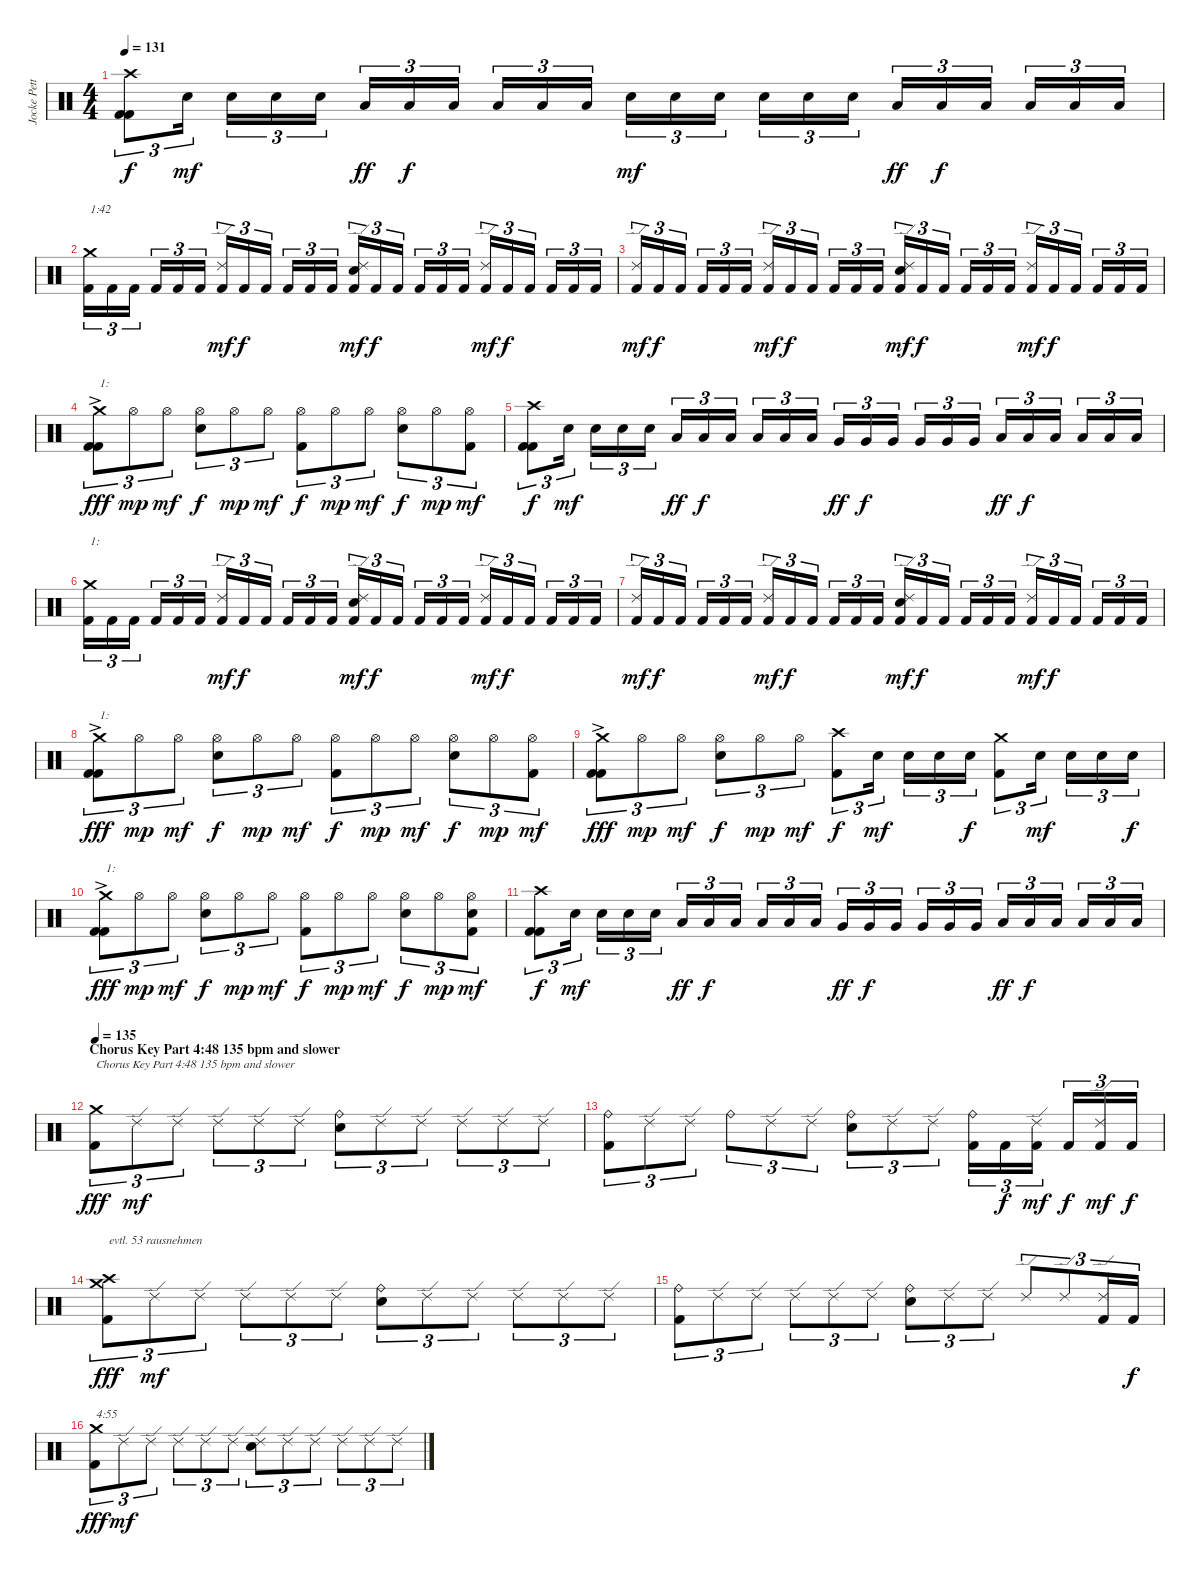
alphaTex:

\track ("Jocke Pettersson" "Jocke Pett") {instrument percussion}
\staff {score}
\articulation defaults
\ts (4 4)
\tempo 131
\clef neutral
\ks c
("Kick (hit) 2" "Kick (hit) 2" "Crash high (hit)").8{tu (3 2) dy f} "Electric Snare (hit)".16{tu (3 2) dy mf} "Electric Snare (hit)".16{tu (3 2)} "Electric Snare (hit)".16{tu (3 2)} "Electric Snare (hit)".16{tu (3 2)} "Low Tom (hit)".16{tu (3 2) dy ff} "Low Tom (hit)".16{tu (3 2) dy f} "Low Tom (hit)".16{tu (3 2)} "Low Tom (hit)".16{tu (3 2)} "Low Tom (hit)".16{tu (3 2)} "Low Tom (hit)".16{tu (3 2)} "Electric Snare (hit)".16{tu (3 2) dy mf} "Electric Snare (hit)".16{tu (3 2)} "Electric Snare (hit)".16{tu (3 2)} "Electric Snare (hit)".16{tu (3 2)} "Electric Snare (hit)".16{tu (3 2)} "Electric Snare (hit)".16{tu (3 2)} "Low Tom (hit)".16{tu (3 2) dy ff} "Low Tom (hit)".16{tu (3 2) dy f} "Low Tom (hit)".16{tu (3 2)} "Low Tom (hit)".16{tu (3 2)} "Low Tom (hit)".16{tu (3 2)} "Low Tom (hit)".16{tu (3 2)} |
("Kick (hit) 2" "Crash medium (hit)").16{tu (3 2) txt "1:42"} "Kick (hit) 2".16{tu (3 2)} "Kick (hit) 2".16{tu (3 2)} "Kick (hit) 2".16{tu (3 2)} "Kick (hit) 2".16{tu (3 2)} "Kick (hit) 2".16{tu (3 2)} ("Kick (hit) 2" "Ride (edge) 2").16{tu (3 2) dy mf} "Kick (hit) 2".16{tu (3 2) dy f} "Kick (hit) 2".16{tu (3 2)} "Kick (hit) 2".16{tu (3 2)} "Kick (hit) 2".16{tu (3 2)} "Kick (hit) 2".16{tu (3 2)} ("Kick (hit) 2" "Electric Snare (hit)" "Ride (edge) 2").16{tu (3 2) dy mf} "Kick (hit) 2".16{tu (3 2) dy f} "Kick (hit) 2".16{tu (3 2)} "Kick (hit) 2".16{tu (3 2)} "Kick (hit) 2".16{tu (3 2)} "Kick (hit) 2".16{tu (3 2)} ("Kick (hit) 2" "Ride (edge) 2").16{tu (3 2) dy mf} "Kick (hit) 2".16{tu (3 2) dy f} "Kick (hit) 2".16{tu (3 2)} "Kick (hit) 2".16{tu (3 2)} "Kick (hit) 2".16{tu (3 2)} "Kick (hit) 2".16{tu (3 2)} |
("Kick (hit) 2" "Ride (edge) 2").16{tu (3 2) dy mf} "Kick (hit) 2".16{tu (3 2) dy f} "Kick (hit) 2".16{tu (3 2)} "Kick (hit) 2".16{tu (3 2)} "Kick (hit) 2".16{tu (3 2)} "Kick (hit) 2".16{tu (3 2)} ("Kick (hit) 2" "Ride (edge) 2").16{tu (3 2) dy mf} "Kick (hit) 2".16{tu (3 2) dy f} "Kick (hit) 2".16{tu (3 2)} "Kick (hit) 2".16{tu (3 2)} "Kick (hit) 2".16{tu (3 2)} "Kick (hit) 2".16{tu (3 2)} ("Kick (hit) 2" "Electric Snare (hit)" "Ride (edge) 2").16{tu (3 2) dy mf} "Kick (hit) 2".16{tu (3 2) dy f} "Kick (hit) 2".16{tu (3 2)} "Kick (hit) 2".16{tu (3 2)} "Kick (hit) 2".16{tu (3 2)} "Kick (hit) 2".16{tu (3 2)} ("Kick (hit) 2" "Ride (edge) 2").16{tu (3 2) dy mf} "Kick (hit) 2".16{tu (3 2) dy f} "Kick (hit) 2".16{tu (3 2)} "Kick (hit) 2".16{tu (3 2)} "Kick (hit) 2".16{tu (3 2)} "Kick (hit) 2".16{tu (3 2)} |
("Kick (hit) 2" "Kick (hit) 2" "Crash medium (hit)"{ac}).8{tu (3 2) txt "1:" dy fff} "Hi-Hat (open)".8{tu (3 2) dy mp} "Hi-Hat (open)".8{tu (3 2) dy mf} ("Electric Snare (hit)" "Hi-Hat (open)").8{tu (3 2) dy f} "Hi-Hat (open)".8{tu (3 2) dy mp} "Hi-Hat (open)".8{tu (3 2) dy mf} ("Kick (hit) 2" "Hi-Hat (open)").8{tu (3 2) dy f} "Hi-Hat (open)".8{tu (3 2) dy mp} "Hi-Hat (open)".8{tu (3 2) dy mf} ("Electric Snare (hit)" "Hi-Hat (open)").8{tu (3 2) dy f} "Hi-Hat (open)".8{tu (3 2) dy mp} ("Kick (hit) 2" "Hi-Hat (open)").8{tu (3 2) dy mf} |
("Kick (hit) 2" "Kick (hit) 2" "Crash high (hit)").8{tu (3 2) dy f} "Electric Snare (hit)".16{tu (3 2) dy mf} "Electric Snare (hit)".16{tu (3 2)} "Electric Snare (hit)".16{tu (3 2)} "Electric Snare (hit)".16{tu (3 2)} "Low Tom (hit)".16{tu (3 2) dy ff} "Low Tom (hit)".16{tu (3 2) dy f} "Low Tom (hit)".16{tu (3 2)} "Low Tom (hit)".16{tu (3 2)} "Low Tom (hit)".16{tu (3 2)} "Low Tom (hit)".16{tu (3 2)} "Very Low Tom (hit)".16{tu (3 2) dy ff} "Very Low Tom (hit)".16{tu (3 2) dy f} "Very Low Tom (hit)".16{tu (3 2)} "Very Low Tom (hit)".16{tu (3 2)} "Very Low Tom (hit)".16{tu (3 2)} "Very Low Tom (hit)".16{tu (3 2)} "Low Floor Tom (hit)".16{tu (3 2) dy ff} "Low Floor Tom (hit)".16{tu (3 2) dy f} "Low Floor Tom (hit)".16{tu (3 2)} "Low Floor Tom (hit)".16{tu (3 2)} "Low Floor Tom (hit)".16{tu (3 2)} "Low Floor Tom (hit)".16{tu (3 2)} |
("Kick (hit) 2" "Crash medium (hit)").16{tu (3 2) txt "1:"} "Kick (hit) 2".16{tu (3 2)} "Kick (hit) 2".16{tu (3 2)} "Kick (hit) 2".16{tu (3 2)} "Kick (hit) 2".16{tu (3 2)} "Kick (hit) 2".16{tu (3 2)} ("Kick (hit) 2" "Ride (edge) 2").16{tu (3 2) dy mf} "Kick (hit) 2".16{tu (3 2) dy f} "Kick (hit) 2".16{tu (3 2)} "Kick (hit) 2".16{tu (3 2)} "Kick (hit) 2".16{tu (3 2)} "Kick (hit) 2".16{tu (3 2)} ("Kick (hit) 2" "Electric Snare (hit)" "Ride (edge) 2").16{tu (3 2) dy mf} "Kick (hit) 2".16{tu (3 2) dy f} "Kick (hit) 2".16{tu (3 2)} "Kick (hit) 2".16{tu (3 2)} "Kick (hit) 2".16{tu (3 2)} "Kick (hit) 2".16{tu (3 2)} ("Kick (hit) 2" "Ride (edge) 2").16{tu (3 2) dy mf} "Kick (hit) 2".16{tu (3 2) dy f} "Kick (hit) 2".16{tu (3 2)} "Kick (hit) 2".16{tu (3 2)} "Kick (hit) 2".16{tu (3 2)} "Kick (hit) 2".16{tu (3 2)} |
("Kick (hit) 2" "Ride (edge) 2").16{tu (3 2) dy mf} "Kick (hit) 2".16{tu (3 2) dy f} "Kick (hit) 2".16{tu (3 2)} "Kick (hit) 2".16{tu (3 2)} "Kick (hit) 2".16{tu (3 2)} "Kick (hit) 2".16{tu (3 2)} ("Kick (hit) 2" "Ride (edge) 2").16{tu (3 2) dy mf} "Kick (hit) 2".16{tu (3 2) dy f} "Kick (hit) 2".16{tu (3 2)} "Kick (hit) 2".16{tu (3 2)} "Kick (hit) 2".16{tu (3 2)} "Kick (hit) 2".16{tu (3 2)} ("Kick (hit) 2" "Electric Snare (hit)" "Ride (edge) 2").16{tu (3 2) dy mf} "Kick (hit) 2".16{tu (3 2) dy f} "Kick (hit) 2".16{tu (3 2)} "Kick (hit) 2".16{tu (3 2)} "Kick (hit) 2".16{tu (3 2)} "Kick (hit) 2".16{tu (3 2)} ("Kick (hit) 2" "Ride (edge) 2").16{tu (3 2) dy mf} "Kick (hit) 2".16{tu (3 2) dy f} "Kick (hit) 2".16{tu (3 2)} "Kick (hit) 2".16{tu (3 2)} "Kick (hit) 2".16{tu (3 2)} "Kick (hit) 2".16{tu (3 2)} |
("Kick (hit) 2" "Kick (hit) 2" "Crash medium (hit)"{ac}).8{tu (3 2) txt "1:" dy fff} "Hi-Hat (open)".8{tu (3 2) dy mp} "Hi-Hat (open)".8{tu (3 2) dy mf} ("Electric Snare (hit)" "Hi-Hat (open)").8{tu (3 2) dy f} "Hi-Hat (open)".8{tu (3 2) dy mp} "Hi-Hat (open)".8{tu (3 2) dy mf} ("Kick (hit) 2" "Hi-Hat (open)").8{tu (3 2) dy f} "Hi-Hat (open)".8{tu (3 2) dy mp} "Hi-Hat (open)".8{tu (3 2) dy mf} ("Electric Snare (hit)" "Hi-Hat (open)").8{tu (3 2) dy f} "Hi-Hat (open)".8{tu (3 2) dy mp} ("Kick (hit) 2" "Hi-Hat (open)").8{tu (3 2) dy mf} |
("Kick (hit) 2" "Kick (hit) 2" "Crash medium (hit)"{ac}).8{tu (3 2) dy fff} "Hi-Hat (open)".8{tu (3 2) dy mp} "Hi-Hat (open)".8{tu (3 2) dy mf} ("Electric Snare (hit)" "Hi-Hat (open)").8{tu (3 2) dy f} "Hi-Hat (open)".8{tu (3 2) dy mp} "Hi-Hat (open)".8{tu (3 2) dy mf} ("Kick (hit) 2" "Crash high (hit)").8{tu (3 2) dy f} "Electric Snare (hit)".16{tu (3 2) dy mf} "Electric Snare (hit)".16{tu (3 2)} "Electric Snare (hit)".16{tu (3 2)} "Electric Snare (hit)".16{tu (3 2) dy f} ("Kick (hit) 2" "Crash medium (hit)").8{tu (3 2)} "Electric Snare (hit)".16{tu (3 2) dy mf} "Electric Snare (hit)".16{tu (3 2)} "Electric Snare (hit)".16{tu (3 2)} "Electric Snare (hit)".16{tu (3 2) dy f} |
("Kick (hit) 2" "Kick (hit) 2" "Crash medium (hit)"{ac}).8{tu (3 2) txt "1:" dy fff} "Hi-Hat (open)".8{tu (3 2) dy mp} "Hi-Hat (open)".8{tu (3 2) dy mf} ("Electric Snare (hit)" "Hi-Hat (open)").8{tu (3 2) dy f} "Hi-Hat (open)".8{tu (3 2) dy mp} "Hi-Hat (open)".8{tu (3 2) dy mf} ("Kick (hit) 2" "Hi-Hat (open)").8{tu (3 2) dy f} "Hi-Hat (open)".8{tu (3 2) dy mp} "Hi-Hat (open)".8{tu (3 2) dy mf} ("Electric Snare (hit)" "Hi-Hat (open)").8{tu (3 2) dy f} "Hi-Hat (open)".8{tu (3 2) dy mp} ("Kick (hit) 2" "Electric Snare (hit)" "Hi-Hat (open)").8{tu (3 2) dy mf} |
("Kick (hit) 2" "Kick (hit) 2" "Crash high (hit)").8{tu (3 2) dy f} "Electric Snare (hit)".16{tu (3 2) dy mf} "Electric Snare (hit)".16{tu (3 2)} "Electric Snare (hit)".16{tu (3 2)} "Electric Snare (hit)".16{tu (3 2)} "Low Tom (hit)".16{tu (3 2) dy ff} "Low Tom (hit)".16{tu (3 2) dy f} "Low Tom (hit)".16{tu (3 2)} "Low Tom (hit)".16{tu (3 2)} "Low Tom (hit)".16{tu (3 2)} "Low Tom (hit)".16{tu (3 2)} "Very Low Tom (hit)".16{tu (3 2) dy ff} "Very Low Tom (hit)".16{tu (3 2) dy f} "Very Low Tom (hit)".16{tu (3 2)} "Very Low Tom (hit)".16{tu (3 2)} "Very Low Tom (hit)".16{tu (3 2)} "Very Low Tom (hit)".16{tu (3 2)} "Low Floor Tom (hit)".16{tu (3 2) dy ff} "Low Floor Tom (hit)".16{tu (3 2) dy f} "Low Floor Tom (hit)".16{tu (3 2)} "Low Floor Tom (hit)".16{tu (3 2)} "Low Floor Tom (hit)".16{tu (3 2)} "Low Floor Tom (hit)".16{tu (3 2)} |
\section ("" "Chorus Key Part 4:48 135 bpm and slower")
\tempo 135
("Kick (hit) 2" "Crash medium (hit)").8{tu (3 2) txt "Chorus Key Part 4:48 135 bpm and slower" dy fff} "Ride (edge) 2".8{tu (3 2) dy mf} "Ride (edge) 2".8{tu (3 2)} "Ride (edge) 2".8{tu (3 2)} "Ride (edge) 2".8{tu (3 2)} "Ride (edge) 2".8{tu (3 2)} ("Electric Snare (hit)" "Ride (bell)").8{tu (3 2)} "Ride (edge) 2".8{tu (3 2)} "Ride (edge) 2".8{tu (3 2)} "Ride (edge) 2".8{tu (3 2)} "Ride (edge) 2".8{tu (3 2)} "Ride (edge) 2".8{tu (3 2)} |
("Kick (hit) 2" "Ride (bell)").8{tu (3 2)} "Ride (edge) 2".8{tu (3 2)} "Ride (edge) 2".8{tu (3 2)} "Ride (bell)".8{tu (3 2)} "Ride (edge) 2".8{tu (3 2)} "Ride (edge) 2".8{tu (3 2)} ("Electric Snare (hit)" "Ride (bell)").8{tu (3 2)} "Ride (edge) 2".8{tu (3 2)} "Ride (edge) 2".8{tu (3 2)} ("Kick (hit) 2" "Ride (bell)").16{tu (3 2)} "Kick (hit) 2".16{tu (3 2) dy f} ("Kick (hit) 2" "Ride (edge) 2").16{tu (3 2) dy mf} "Kick (hit) 2".16{tu (3 2) dy f} ("Kick (hit) 2" "Ride (edge) 2").16{tu (3 2) dy mf} "Kick (hit) 2".16{tu (3 2) dy f} |
("Kick (hit) 2" "Crash high (hit)" "Crash medium (hit)").8{tu (3 2) txt "evtl. 53 rausnehmen" dy fff} "Ride (edge) 2".8{tu (3 2) dy mf} "Ride (edge) 2".8{tu (3 2)} "Ride (edge) 2".8{tu (3 2)} "Ride (edge) 2".8{tu (3 2)} "Ride (edge) 2".8{tu (3 2)} ("Electric Snare (hit)" "Ride (bell)").8{tu (3 2)} "Ride (edge) 2".8{tu (3 2)} "Ride (edge) 2".8{tu (3 2)} "Ride (edge) 2".8{tu (3 2)} "Ride (edge) 2".8{tu (3 2)} "Ride (edge) 2".8{tu (3 2)} |
("Kick (hit) 2" "Ride (bell)").8{tu (3 2)} "Ride (edge) 2".8{tu (3 2)} "Ride (edge) 2".8{tu (3 2)} "Ride (edge) 2".8{tu (3 2)} "Ride (edge) 2".8{tu (3 2)} "Ride (edge) 2".8{tu (3 2)} ("Electric Snare (hit)" "Ride (bell)").8{tu (3 2)} "Ride (edge) 2".8{tu (3 2)} "Ride (edge) 2".8{tu (3 2)} "Ride (edge) 2".8{tu (3 2)} "Ride (edge) 2".8{tu (3 2)} ("Kick (hit) 2" "Ride (edge) 2").16{tu (3 2)} "Kick (hit) 2".16{tu (3 2) dy f} |
("Kick (hit) 2" "Crash medium (hit)").8{tu (3 2) txt "4:55" dy fff} "Ride (edge) 2".8{tu (3 2) dy mf} "Ride (edge) 2".8{tu (3 2)} "Ride (edge) 2".8{tu (3 2)} "Ride (edge) 2".8{tu (3 2)} "Ride (edge) 2".8{tu (3 2)} ("Electric Snare (hit)" "Ride (edge) 2").8{tu (3 2)} "Ride (edge) 2".8{tu (3 2)} "Ride (edge) 2".8{tu (3 2)} "Ride (edge) 2".8{tu (3 2)} "Ride (edge) 2".8{tu (3 2)} "Ride (edge) 2".8{tu (3 2)}
